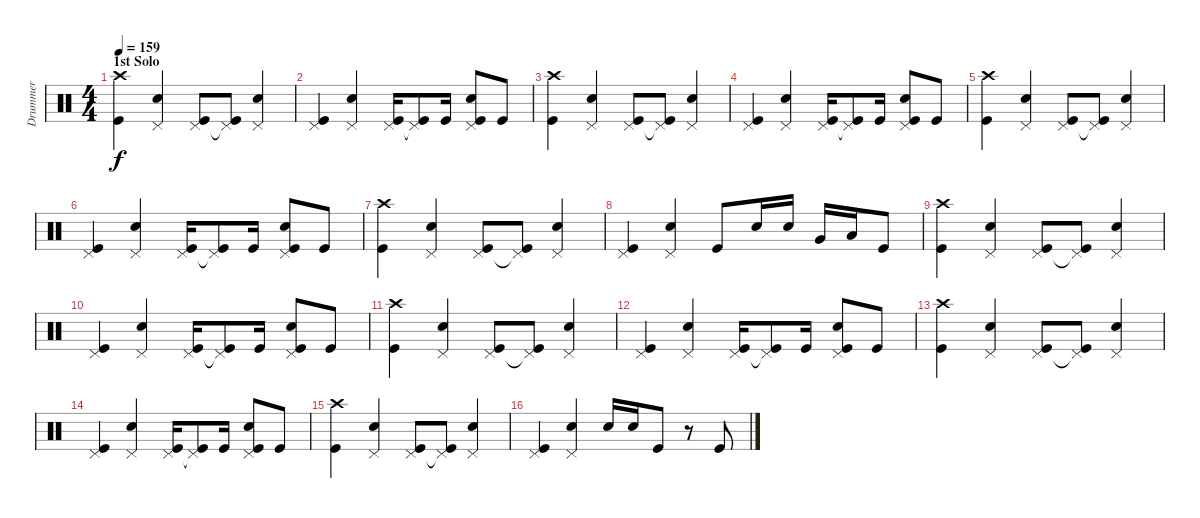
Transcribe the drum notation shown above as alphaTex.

\track ("Drummer" "Drummer") {instrument percussion}
\staff {score}
\articulation defaults
\ts (4 4)
\section ("" "1st Solo ")
\tempo 159
\clef neutral
\ks c
("Kick (hit)" "Crash high (hit)").4{dy f} ("Pedal Hi-Hat (hit)" "Snare (hit) 2").4 ("Kick (hit)" "Pedal Hi-Hat (hit)").8 ("Kick (hit)" "Pedal Hi-Hat (hit)"{t}).8 ("Pedal Hi-Hat (hit)" "Snare (hit) 2").4 |
("Kick (hit)" "Pedal Hi-Hat (hit)").4 ("Pedal Hi-Hat (hit)" "Snare (hit) 2").4 ("Kick (hit)" "Pedal Hi-Hat (hit)").16 ("Kick (hit)" "Pedal Hi-Hat (hit)"{t}).8 "Kick (hit)".16 ("Kick (hit)" "Pedal Hi-Hat (hit)" "Snare (hit) 2").8 "Kick (hit)".8 |
("Kick (hit)" "Crash high (hit)").4 ("Pedal Hi-Hat (hit)" "Snare (hit) 2").4 ("Kick (hit)" "Pedal Hi-Hat (hit)").8 ("Kick (hit)" "Pedal Hi-Hat (hit)"{t}).8 ("Pedal Hi-Hat (hit)" "Snare (hit) 2").4 |
("Kick (hit)" "Pedal Hi-Hat (hit)").4 ("Pedal Hi-Hat (hit)" "Snare (hit) 2").4 ("Kick (hit)" "Pedal Hi-Hat (hit)").16 ("Kick (hit)" "Pedal Hi-Hat (hit)"{t}).8 "Kick (hit)".16 ("Kick (hit)" "Pedal Hi-Hat (hit)" "Snare (hit) 2").8 "Kick (hit)".8 |
("Kick (hit)" "Crash high (hit)").4 ("Pedal Hi-Hat (hit)" "Snare (hit) 2").4 ("Kick (hit)" "Pedal Hi-Hat (hit)").8 ("Kick (hit)" "Pedal Hi-Hat (hit)"{t}).8 ("Pedal Hi-Hat (hit)" "Snare (hit) 2").4 |
("Kick (hit)" "Pedal Hi-Hat (hit)").4 ("Pedal Hi-Hat (hit)" "Snare (hit) 2").4 ("Kick (hit)" "Pedal Hi-Hat (hit)").16 ("Kick (hit)" "Pedal Hi-Hat (hit)"{t}).8 "Kick (hit)".16 ("Kick (hit)" "Pedal Hi-Hat (hit)" "Snare (hit) 2").8 "Kick (hit)".8 |
("Kick (hit)" "Crash high (hit)").4 ("Pedal Hi-Hat (hit)" "Snare (hit) 2").4 ("Kick (hit)" "Pedal Hi-Hat (hit)").8 ("Kick (hit)" "Pedal Hi-Hat (hit)"{t}).8 ("Pedal Hi-Hat (hit)" "Snare (hit) 2").4 |
("Kick (hit)" "Pedal Hi-Hat (hit)").4 ("Pedal Hi-Hat (hit)" "Snare (hit) 2").4 "Kick (hit)".8 "Snare (hit) 2".16 "Electric Snare (hit)".16 "Very Low Tom (hit)".16 "Low Tom (hit)".16 "Kick (hit)".8 |
("Kick (hit)" "Crash high (hit)").4 ("Pedal Hi-Hat (hit)" "Snare (hit) 2").4 ("Kick (hit)" "Pedal Hi-Hat (hit)").8 ("Kick (hit)" "Pedal Hi-Hat (hit)"{t}).8 ("Pedal Hi-Hat (hit)" "Snare (hit) 2").4 |
("Kick (hit)" "Pedal Hi-Hat (hit)").4 ("Pedal Hi-Hat (hit)" "Snare (hit) 2").4 ("Kick (hit)" "Pedal Hi-Hat (hit)").16 ("Kick (hit)" "Pedal Hi-Hat (hit)"{t}).8 "Kick (hit)".16 ("Kick (hit)" "Pedal Hi-Hat (hit)" "Snare (hit) 2").8 "Kick (hit)".8 |
("Kick (hit)" "Crash high (hit)").4 ("Pedal Hi-Hat (hit)" "Snare (hit) 2").4 ("Kick (hit)" "Pedal Hi-Hat (hit)").8 ("Kick (hit)" "Pedal Hi-Hat (hit)"{t}).8 ("Pedal Hi-Hat (hit)" "Snare (hit) 2").4 |
("Kick (hit)" "Pedal Hi-Hat (hit)").4 ("Pedal Hi-Hat (hit)" "Snare (hit) 2").4 ("Kick (hit)" "Pedal Hi-Hat (hit)").16 ("Kick (hit)" "Pedal Hi-Hat (hit)"{t}).8 "Kick (hit)".16 ("Kick (hit)" "Pedal Hi-Hat (hit)" "Snare (hit) 2").8 "Kick (hit)".8 |
("Kick (hit)" "Crash high (hit)").4 ("Pedal Hi-Hat (hit)" "Snare (hit) 2").4 ("Kick (hit)" "Pedal Hi-Hat (hit)").8 ("Kick (hit)" "Pedal Hi-Hat (hit)"{t}).8 ("Pedal Hi-Hat (hit)" "Snare (hit) 2").4 |
("Kick (hit)" "Pedal Hi-Hat (hit)").4 ("Pedal Hi-Hat (hit)" "Snare (hit) 2").4 ("Kick (hit)" "Pedal Hi-Hat (hit)").16 ("Kick (hit)" "Pedal Hi-Hat (hit)"{t}).8 "Kick (hit)".16 ("Kick (hit)" "Pedal Hi-Hat (hit)" "Snare (hit) 2").8 "Kick (hit)".8 |
("Kick (hit)" "Crash high (hit)").4 ("Pedal Hi-Hat (hit)" "Snare (hit) 2").4 ("Kick (hit)" "Pedal Hi-Hat (hit)").8 ("Kick (hit)" "Pedal Hi-Hat (hit)"{t}).8 ("Pedal Hi-Hat (hit)" "Snare (hit) 2").4 |
("Kick (hit)" "Pedal Hi-Hat (hit)").4 ("Pedal Hi-Hat (hit)" "Snare (hit) 2").4 "Electric Snare (hit)".16 "Electric Snare (hit)".16 "Kick (hit)".8 r.8 "Kick (hit)".8
